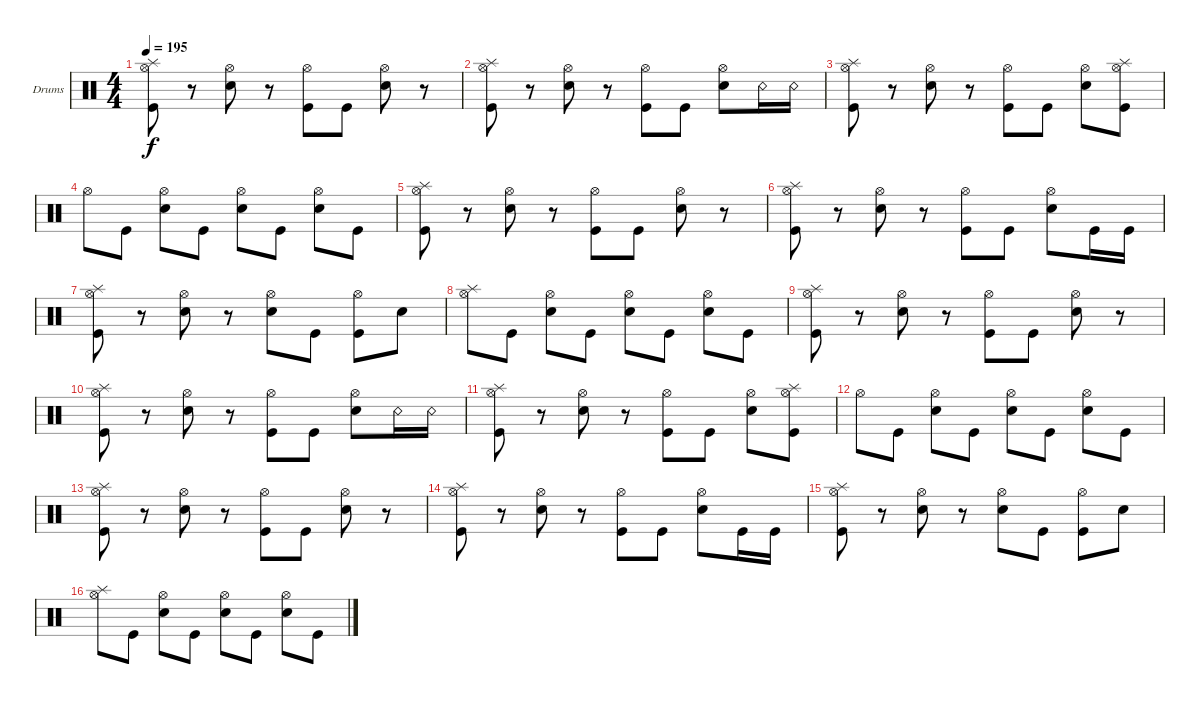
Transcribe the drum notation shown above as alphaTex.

\defaultSystemsLayout 4
\bracketExtendMode groupsimilarinstruments
\firstSystemTrackNameOrientation horizontal
\otherSystemsTrackNameOrientation horizontal
\track ("Drumkit" "Drums") {instrument percussion}
\staff {score}
\articulation defaults
\ts (4 4)
\tempo 195
\clef neutral
\ks c
("Kick (hit)" "Hi-Hat (open)" "Splash (hit)").8{dy f} r.8 ("Hi-Hat (open)" "Snare (hit) 2").8 r.8 ("Hi-Hat (open)" "Kick (hit)").8 "Kick (hit)".8 ("Hi-Hat (open)" "Snare (hit) 2").8 r.8 |
("Kick (hit)" "Hi-Hat (open)" "Splash (hit)").8 r.8 ("Hi-Hat (open)" "Snare (hit) 2").8 r.8 ("Hi-Hat (open)" "Kick (hit)").8 "Kick (hit)".8 ("Hi-Hat (open)" "Snare (hit) 2").8 "Snare (rim shot)".16 "Snare (rim shot)".16 |
("Kick (hit)" "Hi-Hat (open)" "Splash (hit)").8 r.8 ("Hi-Hat (open)" "Snare (hit) 2").8 r.8 ("Hi-Hat (open)" "Kick (hit)").8 "Kick (hit)".8 ("Hi-Hat (open)" "Snare (hit) 2").8 ("Hi-Hat (open)" "Splash (hit)" "Kick (hit)").8 |
"Hi-Hat (open)".8 "Kick (hit)".8 ("Hi-Hat (open)" "Snare (hit) 2").8 "Kick (hit)".8 ("Hi-Hat (open)" "Snare (hit) 2").8 "Kick (hit)".8 ("Hi-Hat (open)" "Snare (hit) 2").8 "Kick (hit)".8 |
("Kick (hit)" "Hi-Hat (open)" "Splash (hit)").8 r.8 ("Hi-Hat (open)" "Snare (hit) 2").8 r.8 ("Hi-Hat (open)" "Kick (hit)").8 "Kick (hit)".8 ("Hi-Hat (open)" "Snare (hit) 2").8 r.8 |
("Kick (hit)" "Hi-Hat (open)" "Splash (hit)").8 r.8 ("Hi-Hat (open)" "Snare (hit) 2").8 r.8 ("Hi-Hat (open)" "Kick (hit)").8 "Kick (hit)".8 ("Hi-Hat (open)" "Snare (hit) 2").8 "Kick (hit)".16 "Kick (hit)".16 |
("Kick (hit)" "Hi-Hat (open)" "Splash (hit)").8 r.8 ("Snare (hit) 2" "Hi-Hat (open)").8 r.8 ("Snare (hit) 2" "Hi-Hat (open)").8 "Kick (hit)".8 ("Kick (hit)" "Hi-Hat (open)").8 "Snare (hit) 2".8 |
("Hi-Hat (open)" "Splash (hit)").8 "Kick (hit)".8 ("Snare (hit) 2" "Hi-Hat (open)").8 "Kick (hit)".8 ("Snare (hit) 2" "Hi-Hat (open)").8 "Kick (hit)".8 ("Snare (hit) 2" "Hi-Hat (open)").8 "Kick (hit)".8 |
("Kick (hit)" "Hi-Hat (open)" "Splash (hit)").8 r.8 ("Hi-Hat (open)" "Snare (hit) 2").8 r.8 ("Hi-Hat (open)" "Kick (hit)").8 "Kick (hit)".8 ("Hi-Hat (open)" "Snare (hit) 2").8 r.8 |
("Kick (hit)" "Hi-Hat (open)" "Splash (hit)").8 r.8 ("Hi-Hat (open)" "Snare (hit) 2").8 r.8 ("Hi-Hat (open)" "Kick (hit)").8 "Kick (hit)".8 ("Hi-Hat (open)" "Snare (hit) 2").8 "Snare (rim shot)".16 "Snare (rim shot)".16 |
("Kick (hit)" "Hi-Hat (open)" "Splash (hit)").8 r.8 ("Hi-Hat (open)" "Snare (hit) 2").8 r.8 ("Hi-Hat (open)" "Kick (hit)").8 "Kick (hit)".8 ("Hi-Hat (open)" "Snare (hit) 2").8 ("Hi-Hat (open)" "Splash (hit)" "Kick (hit)").8 |
"Hi-Hat (open)".8 "Kick (hit)".8 ("Hi-Hat (open)" "Snare (hit) 2").8 "Kick (hit)".8 ("Hi-Hat (open)" "Snare (hit) 2").8 "Kick (hit)".8 ("Hi-Hat (open)" "Snare (hit) 2").8 "Kick (hit)".8 |
("Kick (hit)" "Hi-Hat (open)" "Splash (hit)").8 r.8 ("Hi-Hat (open)" "Snare (hit) 2").8 r.8 ("Hi-Hat (open)" "Kick (hit)").8 "Kick (hit)".8 ("Hi-Hat (open)" "Snare (hit) 2").8 r.8 |
("Kick (hit)" "Hi-Hat (open)" "Splash (hit)").8 r.8 ("Hi-Hat (open)" "Snare (hit) 2").8 r.8 ("Hi-Hat (open)" "Kick (hit)").8 "Kick (hit)".8 ("Hi-Hat (open)" "Snare (hit) 2").8 "Kick (hit)".16 "Kick (hit)".16 |
("Kick (hit)" "Hi-Hat (open)" "Splash (hit)").8 r.8 ("Snare (hit) 2" "Hi-Hat (open)").8 r.8 ("Snare (hit) 2" "Hi-Hat (open)").8 "Kick (hit)".8 ("Kick (hit)" "Hi-Hat (open)").8 "Snare (hit) 2".8 |
("Hi-Hat (open)" "Splash (hit)").8 "Kick (hit)".8 ("Snare (hit) 2" "Hi-Hat (open)").8 "Kick (hit)".8 ("Snare (hit) 2" "Hi-Hat (open)").8 "Kick (hit)".8 ("Snare (hit) 2" "Hi-Hat (open)").8 "Kick (hit)".8
